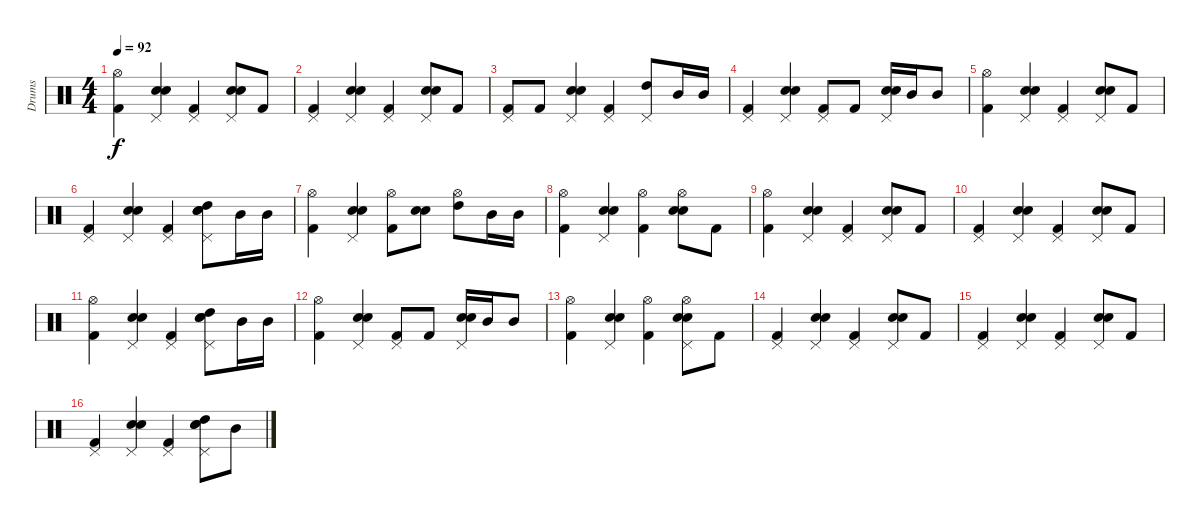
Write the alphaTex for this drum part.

\track ("Drums" "Drums") {instrument percussion}
\staff {score}
\articulation defaults
\ts (4 4)
\tempo 92
\clef neutral
\ks c
("Hi-Hat (open)" "Kick (hit) 2").4{dy f} ("Snare (hit) 2" "Electric Snare (hit)" "Pedal Hi-Hat (hit)").4 ("Kick (hit) 2" "Pedal Hi-Hat (hit)").4 ("Snare (hit) 2" "Electric Snare (hit)" "Pedal Hi-Hat (hit)").8 "Kick (hit) 2".8 |
("Kick (hit) 2" "Pedal Hi-Hat (hit)").4 ("Snare (hit) 2" "Electric Snare (hit)" "Pedal Hi-Hat (hit)").4 ("Kick (hit) 2" "Pedal Hi-Hat (hit)").4 ("Snare (hit) 2" "Electric Snare (hit)" "Pedal Hi-Hat (hit)").8 "Kick (hit) 2".8 |
("Kick (hit) 2" "Pedal Hi-Hat (hit)").8 "Kick (hit) 2".8 ("Snare (hit) 2" "Electric Snare (hit)" "Pedal Hi-Hat (hit)").4 ("Kick (hit) 2" "Pedal Hi-Hat (hit)").4 ("High Tom (hit)" "Pedal Hi-Hat (hit)").8 "Mid Tom (hit)".16 "Mid Tom (hit)".16 |
("Kick (hit) 2" "Pedal Hi-Hat (hit)").4 ("Snare (hit) 2" "Electric Snare (hit)" "Pedal Hi-Hat (hit)").4 ("Kick (hit) 2" "Pedal Hi-Hat (hit)").8 "Kick (hit) 2".8 ("Snare (hit) 2" "Electric Snare (hit)" "Pedal Hi-Hat (hit)").16 "Mid Tom (hit)".16 "Mid Tom (hit)".8 |
("Hi-Hat (open)" "Kick (hit) 2").4 ("Snare (hit) 2" "Electric Snare (hit)" "Pedal Hi-Hat (hit)").4 ("Kick (hit) 2" "Pedal Hi-Hat (hit)").4 ("Snare (hit) 2" "Electric Snare (hit)" "Pedal Hi-Hat (hit)").8 "Kick (hit) 2".8 |
("Kick (hit) 2" "Pedal Hi-Hat (hit)").4 ("Snare (hit) 2" "Electric Snare (hit)" "Pedal Hi-Hat (hit)").4 ("Kick (hit) 2" "Pedal Hi-Hat (hit)").4 ("Snare (hit) 2" "Electric Snare (hit)" "High Tom (hit)" "Pedal Hi-Hat (hit)").8 "Mid Tom (hit)".16 "Mid Tom (hit)".16 |
("Hi-Hat (open)" "Kick (hit) 2").4 ("Snare (hit) 2" "Electric Snare (hit)" "Pedal Hi-Hat (hit)").4 ("Hi-Hat (open)" "Kick (hit) 2").8 ("Snare (hit) 2" "Electric Snare (hit)").8 ("Hi-Hat (open)" "High Tom (hit)").8 "Mid Tom (hit)".16 "Mid Tom (hit)".16 |
("Hi-Hat (open)" "Kick (hit) 2").4 ("Snare (hit) 2" "Electric Snare (hit)" "Pedal Hi-Hat (hit)").4 ("Hi-Hat (open)" "Kick (hit) 2").4 ("Hi-Hat (open)" "Snare (hit) 2" "Electric Snare (hit)").8 "Kick (hit) 2".8 |
("Hi-Hat (open)" "Kick (hit) 2").4 ("Snare (hit) 2" "Electric Snare (hit)" "Pedal Hi-Hat (hit)").4 ("Kick (hit) 2" "Pedal Hi-Hat (hit)").4 ("Snare (hit) 2" "Electric Snare (hit)" "Pedal Hi-Hat (hit)").8 "Kick (hit) 2".8 |
("Kick (hit) 2" "Pedal Hi-Hat (hit)").4 ("Snare (hit) 2" "Electric Snare (hit)" "Pedal Hi-Hat (hit)").4 ("Kick (hit) 2" "Pedal Hi-Hat (hit)").4 ("Snare (hit) 2" "Electric Snare (hit)" "Pedal Hi-Hat (hit)").8 "Kick (hit) 2".8 |
("Hi-Hat (open)" "Kick (hit) 2").4 ("Snare (hit) 2" "Electric Snare (hit)" "Pedal Hi-Hat (hit)").4 ("Kick (hit) 2" "Pedal Hi-Hat (hit)").4 ("Snare (hit) 2" "Electric Snare (hit)" "High Tom (hit)" "Pedal Hi-Hat (hit)").8 "Mid Tom (hit)".16 "Mid Tom (hit)".16 |
("Hi-Hat (open)" "Kick (hit) 2").4 ("Snare (hit) 2" "Electric Snare (hit)" "Pedal Hi-Hat (hit)").4 ("Kick (hit) 2" "Pedal Hi-Hat (hit)").8 "Kick (hit) 2".8 ("Snare (hit) 2" "Electric Snare (hit)" "Pedal Hi-Hat (hit)").16 "Mid Tom (hit)".16 "Mid Tom (hit)".8 |
("Hi-Hat (open)" "Kick (hit) 2").4 ("Snare (hit) 2" "Electric Snare (hit)" "Pedal Hi-Hat (hit)").4 ("Hi-Hat (open)" "Kick (hit) 2").4 ("Hi-Hat (open)" "Snare (hit) 2" "Electric Snare (hit)" "Pedal Hi-Hat (hit)").8 "Kick (hit) 2".8 |
("Kick (hit) 2" "Pedal Hi-Hat (hit)").4 ("Snare (hit) 2" "Electric Snare (hit)" "Pedal Hi-Hat (hit)").4 ("Kick (hit) 2" "Pedal Hi-Hat (hit)").4 ("Snare (hit) 2" "Electric Snare (hit)" "Pedal Hi-Hat (hit)").8 "Kick (hit) 2".8 |
("Kick (hit) 2" "Pedal Hi-Hat (hit)").4 ("Snare (hit) 2" "Electric Snare (hit)" "Pedal Hi-Hat (hit)").4 ("Kick (hit) 2" "Pedal Hi-Hat (hit)").4 ("Snare (hit) 2" "Electric Snare (hit)" "Pedal Hi-Hat (hit)").8 "Kick (hit) 2".8 |
("Kick (hit) 2" "Pedal Hi-Hat (hit)").4 ("Snare (hit) 2" "Electric Snare (hit)" "Pedal Hi-Hat (hit)").4 ("Kick (hit) 2" "Pedal Hi-Hat (hit)").4 ("Snare (hit) 2" "Electric Snare (hit)" "High Tom (hit)" "Pedal Hi-Hat (hit)").8 "Mid Tom (hit)".8
